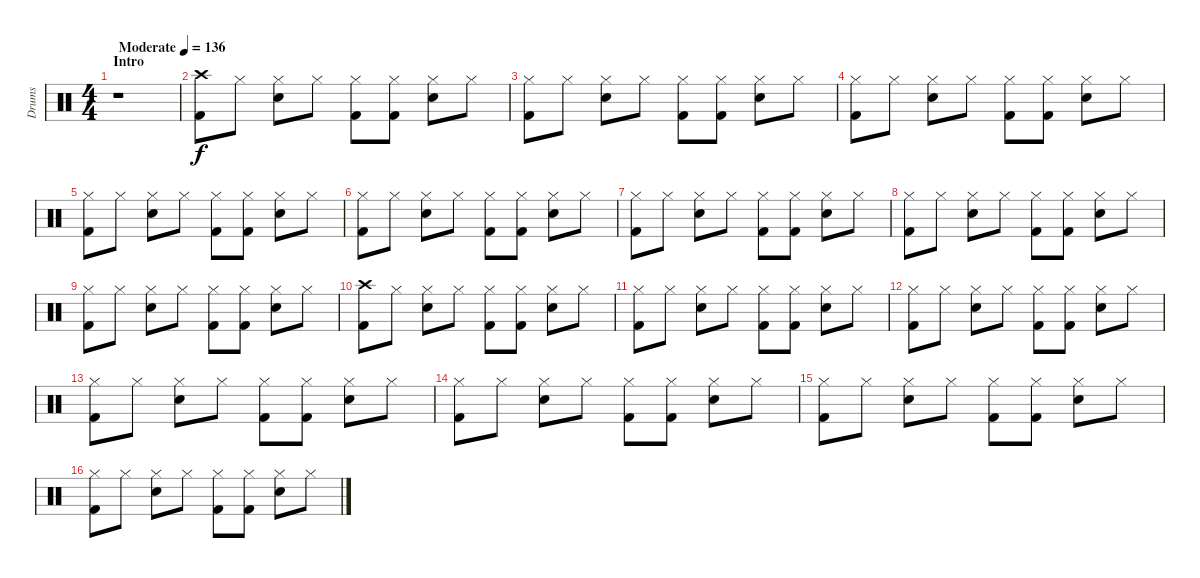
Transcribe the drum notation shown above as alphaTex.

\track ("Drums" "Drums") {instrument percussion}
\staff {score}
\articulation defaults
\ts (4 4)
\section ("" "Intro")
\tempo (136 "Moderate")
\clef neutral
\ks c
r.1{dy f} |
("Crash high (hit)" "Kick (hit) 2").8 "Hi-Hat (closed)".8 ("Hi-Hat (closed)" "Snare (hit) 2").8 "Hi-Hat (closed)".8 ("Hi-Hat (closed)" "Kick (hit) 2").8 ("Hi-Hat (closed)" "Kick (hit) 2").8 ("Hi-Hat (closed)" "Snare (hit) 2").8 "Hi-Hat (closed)".8 |
("Hi-Hat (closed)" "Kick (hit) 2").8 "Hi-Hat (closed)".8 ("Hi-Hat (closed)" "Snare (hit) 2").8 "Hi-Hat (closed)".8 ("Hi-Hat (closed)" "Kick (hit) 2").8 ("Hi-Hat (closed)" "Kick (hit) 2").8 ("Hi-Hat (closed)" "Snare (hit) 2").8 "Hi-Hat (closed)".8 |
("Hi-Hat (closed)" "Kick (hit) 2").8 "Hi-Hat (closed)".8 ("Hi-Hat (closed)" "Snare (hit) 2").8 "Hi-Hat (closed)".8 ("Hi-Hat (closed)" "Kick (hit) 2").8 ("Hi-Hat (closed)" "Kick (hit) 2").8 ("Hi-Hat (closed)" "Snare (hit) 2").8 "Hi-Hat (closed)".8 |
("Hi-Hat (closed)" "Kick (hit) 2").8 "Hi-Hat (closed)".8 ("Hi-Hat (closed)" "Snare (hit) 2").8 "Hi-Hat (closed)".8 ("Hi-Hat (closed)" "Kick (hit) 2").8 ("Hi-Hat (closed)" "Kick (hit) 2").8 ("Hi-Hat (closed)" "Snare (hit) 2").8 "Hi-Hat (closed)".8 |
("Hi-Hat (closed)" "Kick (hit) 2").8 "Hi-Hat (closed)".8 ("Hi-Hat (closed)" "Snare (hit) 2").8 "Hi-Hat (closed)".8 ("Hi-Hat (closed)" "Kick (hit) 2").8 ("Hi-Hat (closed)" "Kick (hit) 2").8 ("Hi-Hat (closed)" "Snare (hit) 2").8 "Hi-Hat (closed)".8 |
("Hi-Hat (closed)" "Kick (hit) 2").8 "Hi-Hat (closed)".8 ("Hi-Hat (closed)" "Snare (hit) 2").8 "Hi-Hat (closed)".8 ("Hi-Hat (closed)" "Kick (hit) 2").8 ("Hi-Hat (closed)" "Kick (hit) 2").8 ("Hi-Hat (closed)" "Snare (hit) 2").8 "Hi-Hat (closed)".8 |
("Hi-Hat (closed)" "Kick (hit) 2").8 "Hi-Hat (closed)".8 ("Hi-Hat (closed)" "Snare (hit) 2").8 "Hi-Hat (closed)".8 ("Hi-Hat (closed)" "Kick (hit) 2").8 ("Hi-Hat (closed)" "Kick (hit) 2").8 ("Hi-Hat (closed)" "Snare (hit) 2").8 "Hi-Hat (closed)".8 |
("Hi-Hat (closed)" "Kick (hit) 2").8 "Hi-Hat (closed)".8 ("Hi-Hat (closed)" "Snare (hit) 2").8 "Hi-Hat (closed)".8 ("Hi-Hat (closed)" "Kick (hit) 2").8 ("Hi-Hat (closed)" "Kick (hit) 2").8 ("Hi-Hat (closed)" "Snare (hit) 2").8 "Hi-Hat (closed)".8 |
("Crash high (hit)" "Kick (hit) 2").8 "Hi-Hat (closed)".8 ("Hi-Hat (closed)" "Snare (hit) 2").8 "Hi-Hat (closed)".8 ("Hi-Hat (closed)" "Kick (hit) 2").8 ("Hi-Hat (closed)" "Kick (hit) 2").8 ("Hi-Hat (closed)" "Snare (hit) 2").8 "Hi-Hat (closed)".8 |
("Hi-Hat (closed)" "Kick (hit) 2").8 "Hi-Hat (closed)".8 ("Hi-Hat (closed)" "Snare (hit) 2").8 "Hi-Hat (closed)".8 ("Hi-Hat (closed)" "Kick (hit) 2").8 ("Hi-Hat (closed)" "Kick (hit) 2").8 ("Hi-Hat (closed)" "Snare (hit) 2").8 "Hi-Hat (closed)".8 |
("Hi-Hat (closed)" "Kick (hit) 2").8 "Hi-Hat (closed)".8 ("Hi-Hat (closed)" "Snare (hit) 2").8 "Hi-Hat (closed)".8 ("Hi-Hat (closed)" "Kick (hit) 2").8 ("Hi-Hat (closed)" "Kick (hit) 2").8 ("Hi-Hat (closed)" "Snare (hit) 2").8 "Hi-Hat (closed)".8 |
("Hi-Hat (closed)" "Kick (hit) 2").8 "Hi-Hat (closed)".8 ("Hi-Hat (closed)" "Snare (hit) 2").8 "Hi-Hat (closed)".8 ("Hi-Hat (closed)" "Kick (hit) 2").8 ("Hi-Hat (closed)" "Kick (hit) 2").8 ("Hi-Hat (closed)" "Snare (hit) 2").8 "Hi-Hat (closed)".8 |
("Hi-Hat (closed)" "Kick (hit) 2").8 "Hi-Hat (closed)".8 ("Hi-Hat (closed)" "Snare (hit) 2").8 "Hi-Hat (closed)".8 ("Hi-Hat (closed)" "Kick (hit) 2").8 ("Hi-Hat (closed)" "Kick (hit) 2").8 ("Hi-Hat (closed)" "Snare (hit) 2").8 "Hi-Hat (closed)".8 |
("Hi-Hat (closed)" "Kick (hit) 2").8 "Hi-Hat (closed)".8 ("Hi-Hat (closed)" "Snare (hit) 2").8 "Hi-Hat (closed)".8 ("Hi-Hat (closed)" "Kick (hit) 2").8 ("Hi-Hat (closed)" "Kick (hit) 2").8 ("Hi-Hat (closed)" "Snare (hit) 2").8 "Hi-Hat (closed)".8 |
("Hi-Hat (closed)" "Kick (hit) 2").8 "Hi-Hat (closed)".8 ("Hi-Hat (closed)" "Snare (hit) 2").8 "Hi-Hat (closed)".8 ("Hi-Hat (closed)" "Kick (hit) 2").8 ("Hi-Hat (closed)" "Kick (hit) 2").8 ("Hi-Hat (closed)" "Snare (hit) 2").8 "Hi-Hat (closed)".8
